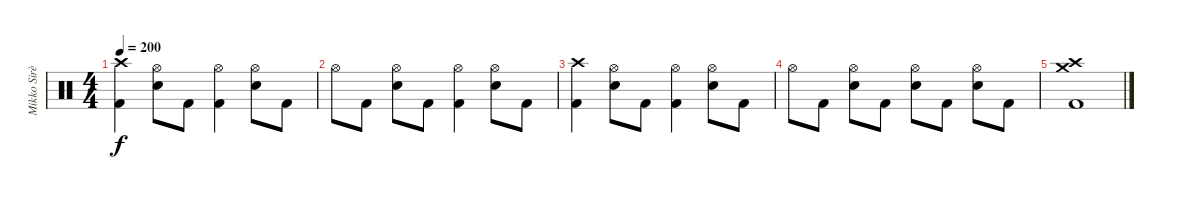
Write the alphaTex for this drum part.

\track ("Mikko Sirèn" "Mikko Sirè") {instrument percussion}
\staff {score}
\articulation defaults
\ts (4 4)
\tempo 200
\clef neutral
\ks c
("Crash high (hit)" "Kick (hit) 2").4{dy f} ("Hi-Hat (open)" "Electric Snare (hit)").8 "Kick (hit) 2".8 ("Hi-Hat (open)" "Kick (hit) 2").4 ("Hi-Hat (open)" "Electric Snare (hit)").8 "Kick (hit) 2".8 |
"Hi-Hat (open)".8 "Kick (hit) 2".8 ("Hi-Hat (open)" "Electric Snare (hit)").8 "Kick (hit) 2".8 ("Hi-Hat (open)" "Kick (hit) 2").4 ("Hi-Hat (open)" "Electric Snare (hit)").8 "Kick (hit) 2".8 |
("Crash high (hit)" "Kick (hit) 2").4 ("Hi-Hat (open)" "Electric Snare (hit)").8 "Kick (hit) 2".8 ("Hi-Hat (open)" "Kick (hit) 2").4 ("Hi-Hat (open)" "Electric Snare (hit)").8 "Kick (hit) 2".8 |
"Hi-Hat (open)".8 "Kick (hit) 2".8 ("Hi-Hat (open)" "Electric Snare (hit)").8 "Kick (hit) 2".8 ("Hi-Hat (open)" "Electric Snare (hit)").8 "Kick (hit) 2".8 ("Hi-Hat (open)" "Electric Snare (hit)").8 "Kick (hit) 2".8 |
("Crash medium (hit)" "Crash high (hit)" "Kick (hit) 2").1
